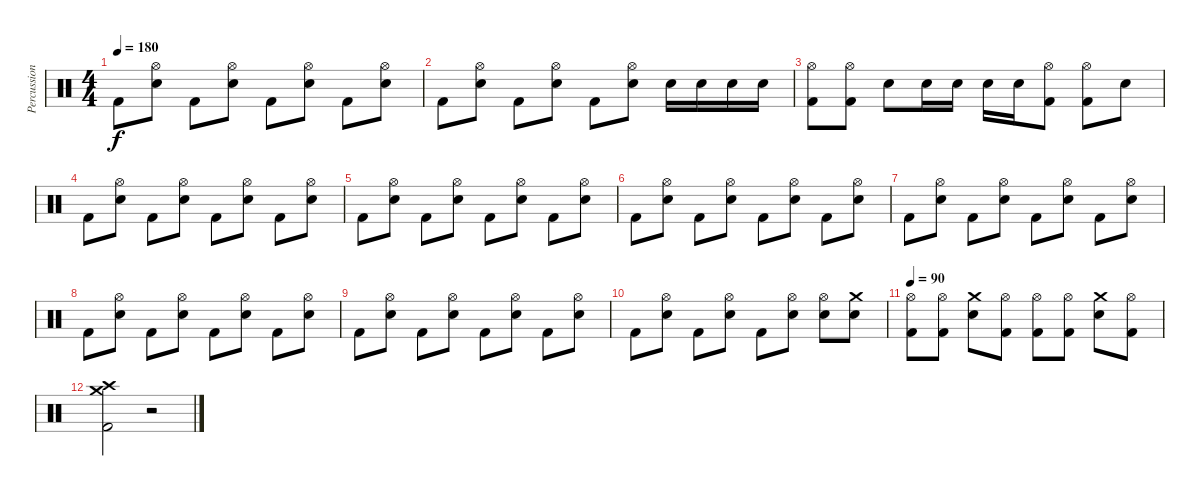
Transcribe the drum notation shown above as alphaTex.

\track ("Percussion" "Percussion") {instrument percussion}
\staff {score}
\articulation defaults
\ts (4 4)
\tempo 180
\clef neutral
\ks c "Kick (hit) 2".8{dy f}
("Hi-Hat (open)" "Electric Snare (hit)").8 "Kick (hit) 2".8 ("Hi-Hat (open)" "Electric Snare (hit)").8 "Kick (hit) 2".8 ("Hi-Hat (open)" "Electric Snare (hit)").8 "Kick (hit) 2".8 ("Hi-Hat (open)" "Electric Snare (hit)").8 |
"Kick (hit) 2".8 ("Hi-Hat (open)" "Electric Snare (hit)").8 "Kick (hit) 2".8 ("Hi-Hat (open)" "Electric Snare (hit)").8 "Kick (hit) 2".8 ("Hi-Hat (open)" "Electric Snare (hit)").8 "Electric Snare (hit)".16 "Electric Snare (hit)".16 "Electric Snare (hit)".16 "Electric Snare (hit)".16 |
("Hi-Hat (open)" "Kick (hit) 2").8 ("Hi-Hat (open)" "Kick (hit) 2").8 "Electric Snare (hit)".8 "Electric Snare (hit)".16 "Electric Snare (hit)".16 "Electric Snare (hit)".16 "Electric Snare (hit)".16 ("Hi-Hat (open)" "Kick (hit) 2").8 ("Hi-Hat (open)" "Kick (hit) 2").8 "Electric Snare (hit)".8 |
"Kick (hit) 2".8 ("Hi-Hat (open)" "Electric Snare (hit)").8 "Kick (hit) 2".8 ("Hi-Hat (open)" "Electric Snare (hit)").8 "Kick (hit) 2".8 ("Hi-Hat (open)" "Electric Snare (hit)").8 "Kick (hit) 2".8 ("Hi-Hat (open)" "Electric Snare (hit)").8 |
"Kick (hit) 2".8 ("Hi-Hat (open)" "Electric Snare (hit)").8 "Kick (hit) 2".8 ("Hi-Hat (open)" "Electric Snare (hit)").8 "Kick (hit) 2".8 ("Hi-Hat (open)" "Electric Snare (hit)").8 "Kick (hit) 2".8 ("Hi-Hat (open)" "Electric Snare (hit)").8 |
"Kick (hit) 2".8 ("Hi-Hat (open)" "Electric Snare (hit)").8 "Kick (hit) 2".8 ("Hi-Hat (open)" "Electric Snare (hit)").8 "Kick (hit) 2".8 ("Hi-Hat (open)" "Electric Snare (hit)").8 "Kick (hit) 2".8 ("Hi-Hat (open)" "Electric Snare (hit)").8 |
"Kick (hit) 2".8 ("Hi-Hat (open)" "Electric Snare (hit)").8 "Kick (hit) 2".8 ("Hi-Hat (open)" "Electric Snare (hit)").8 "Kick (hit) 2".8 ("Hi-Hat (open)" "Electric Snare (hit)").8 "Kick (hit) 2".8 ("Hi-Hat (open)" "Electric Snare (hit)").8 |
"Kick (hit) 2".8 ("Hi-Hat (open)" "Electric Snare (hit)").8 "Kick (hit) 2".8 ("Hi-Hat (open)" "Electric Snare (hit)").8 "Kick (hit) 2".8 ("Hi-Hat (open)" "Electric Snare (hit)").8 "Kick (hit) 2".8 ("Hi-Hat (open)" "Electric Snare (hit)").8 |
"Kick (hit) 2".8 ("Hi-Hat (open)" "Electric Snare (hit)").8 "Kick (hit) 2".8 ("Hi-Hat (open)" "Electric Snare (hit)").8 "Kick (hit) 2".8 ("Hi-Hat (open)" "Electric Snare (hit)").8 "Kick (hit) 2".8 ("Hi-Hat (open)" "Electric Snare (hit)").8 |
"Kick (hit) 2".8 ("Hi-Hat (open)" "Electric Snare (hit)").8 "Kick (hit) 2".8 ("Hi-Hat (open)" "Electric Snare (hit)").8 "Kick (hit) 2".8 ("Hi-Hat (open)" "Electric Snare (hit)").8 ("Hi-Hat (open)" "Electric Snare (hit)").8 ("Crash medium (hit)" "Electric Snare (hit)").8 |
\tempo 90
("Hi-Hat (open)" "Kick (hit) 2").8 ("Hi-Hat (open)" "Kick (hit) 2").8 ("Crash medium (hit)" "Electric Snare (hit)").8 ("Hi-Hat (open)" "Kick (hit) 2").8 ("Hi-Hat (open)" "Kick (hit) 2").8 ("Hi-Hat (open)" "Kick (hit) 2").8 ("Crash medium (hit)" "Electric Snare (hit)").8 ("Hi-Hat (open)" "Kick (hit) 2").8 |
("Crash high (hit)" "Crash medium (hit)" "Kick (hit) 2").2 r.2
